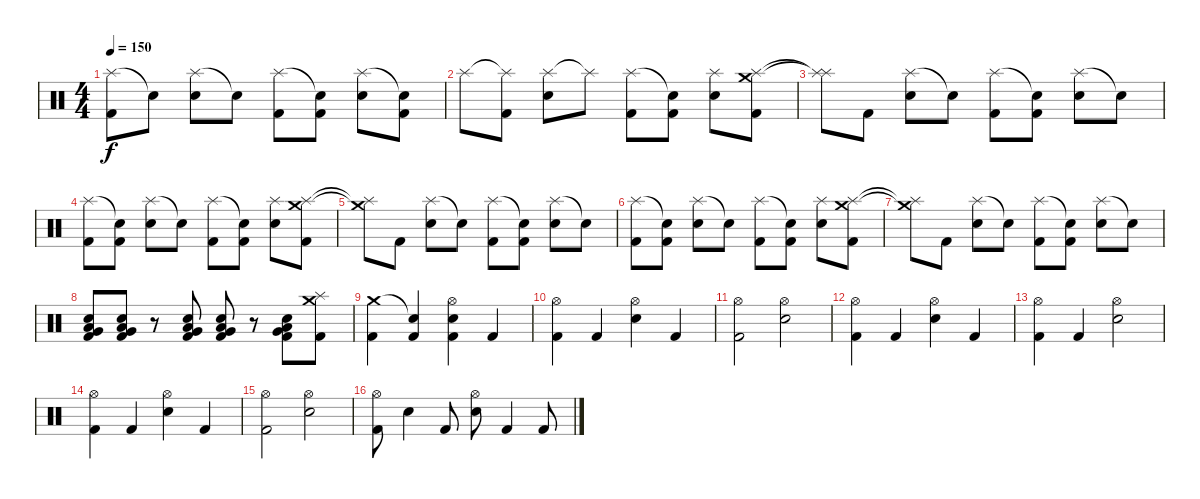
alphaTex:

\track (" " " ") {instrument percussion}
\staff {score}
\articulation defaults
\ts (4 4)
\tempo 150
\clef neutral
\ks c
("Splash (hit)" "Kick (hit) 2").8{dy f} "Snare (hit)"{t}.8 ("Splash (hit)" "Electric Snare (hit)").8 "Snare (hit)"{t}.8 ("Splash (hit)" "Kick (hit) 2").8 ("Snare (hit)"{t} "Kick (hit) 2").8 ("Splash (hit)" "Electric Snare (hit)").8 ("Snare (hit)"{t} "Kick (hit) 2").8 |
"Splash (hit)".8 ("Splash (hit)"{t} "Kick (hit) 2").8 ("Splash (hit)" "Electric Snare (hit)").8 "Splash (hit)"{t}.8 ("Splash (hit)" "Kick (hit) 2").8 ("Snare (hit)"{t} "Kick (hit) 2").8 ("Splash (hit)" "Electric Snare (hit)").8 ("Crash medium (hit)" "Splash (hit)" "Kick (hit) 2").8 |
("Splash (hit)"{t} "Splash (hit)"{t}).8 "Kick (hit) 2".8 ("Splash (hit)" "Electric Snare (hit)").8 "Snare (hit)"{t}.8 ("Splash (hit)" "Kick (hit) 2").8 ("Snare (hit)"{t} "Kick (hit) 2").8 ("Splash (hit)" "Electric Snare (hit)").8 "Snare (hit)"{t}.8 |
("Splash (hit)" "Kick (hit) 2").8 ("Snare (hit)"{t} "Kick (hit) 2").8 ("Splash (hit)" "Electric Snare (hit)").8 "Snare (hit)"{t}.8 ("Splash (hit)" "Kick (hit) 2").8 ("Snare (hit)"{t} "Kick (hit) 2").8 ("Splash (hit)" "Electric Snare (hit)").8 ("Crash medium (hit)" "Splash (hit)" "Kick (hit) 2").8 |
("Crash medium (hit)"{t} "Splash (hit)"{t}).8 "Kick (hit) 2".8 ("Splash (hit)" "Electric Snare (hit)").8 "Snare (hit)"{t}.8 ("Splash (hit)" "Kick (hit) 2").8 ("Snare (hit)"{t} "Kick (hit) 2").8 ("Splash (hit)" "Electric Snare (hit)").8 "Snare (hit)"{t}.8 |
("Splash (hit)" "Kick (hit) 2").8 ("Snare (hit)"{t} "Kick (hit) 2").8 ("Splash (hit)" "Electric Snare (hit)").8 "Snare (hit)"{t}.8 ("Splash (hit)" "Kick (hit) 2").8 ("Snare (hit)"{t} "Kick (hit) 2").8 ("Splash (hit)" "Electric Snare (hit)").8 ("Crash medium (hit)" "Splash (hit)" "Kick (hit) 2").8 |
("Crash medium (hit)"{t} "Splash (hit)"{t}).8 "Kick (hit) 2".8 ("Splash (hit)" "Electric Snare (hit)").8 "Snare (hit)"{t}.8 ("Splash (hit)" "Kick (hit) 2").8 ("Snare (hit)"{t} "Kick (hit) 2").8 ("Splash (hit)" "Electric Snare (hit)").8 "Snare (hit)"{t}.8 |
("Electric Snare (hit)" "Low Floor Tom (hit)" "Very Low Tom (hit)" "Kick (hit) 2").8 ("Electric Snare (hit)" "Low Floor Tom (hit)" "Very Low Tom (hit)" "Kick (hit) 2").8 r.8 ("Electric Snare (hit)" "Low Floor Tom (hit)" "Very Low Tom (hit)" "Kick (hit) 2").8 ("Electric Snare (hit)" "Low Floor Tom (hit)" "Very Low Tom (hit)" "Kick (hit) 2").8 r.8 ("Electric Snare (hit)" "Low Floor Tom (hit)" "Very Low Tom (hit)" "Kick (hit) 2").8 ("Splash (hit)" "Crash medium (hit)" "Kick (hit) 2").8 |
("Crash medium (hit)" "Kick (hit) 2").4 ("Snare (hit)"{t} "Kick (hit) 2").4 ("Hi-Hat (open)" "Electric Snare (hit)" "Kick (hit) 2").4 "Kick (hit) 2".4 |
("Hi-Hat (open)" "Kick (hit) 2").4 "Kick (hit) 2".4 ("Hi-Hat (open)" "Electric Snare (hit)").4 "Kick (hit) 2".4 |
("Hi-Hat (open)" "Kick (hit) 2").2 ("Hi-Hat (open)" "Electric Snare (hit)").2 |
("Hi-Hat (open)" "Kick (hit) 2").4 "Kick (hit) 2".4 ("Hi-Hat (open)" "Electric Snare (hit)").4 "Kick (hit) 2".4 |
("Hi-Hat (open)" "Kick (hit) 2").4 "Kick (hit) 2".4 ("Hi-Hat (open)" "Electric Snare (hit)").2 |
("Hi-Hat (open)" "Kick (hit) 2").4 "Kick (hit) 2".4 ("Hi-Hat (open)" "Electric Snare (hit)").4 "Kick (hit) 2".4 |
("Hi-Hat (open)" "Kick (hit) 2").2 ("Hi-Hat (open)" "Electric Snare (hit)").2 |
("Hi-Hat (open)" "Kick (hit) 2").8 "Electric Snare (hit)".4 "Kick (hit) 2".8 ("Hi-Hat (open)" "Electric Snare (hit)").8 "Kick (hit) 2".4 "Kick (hit) 2".8
